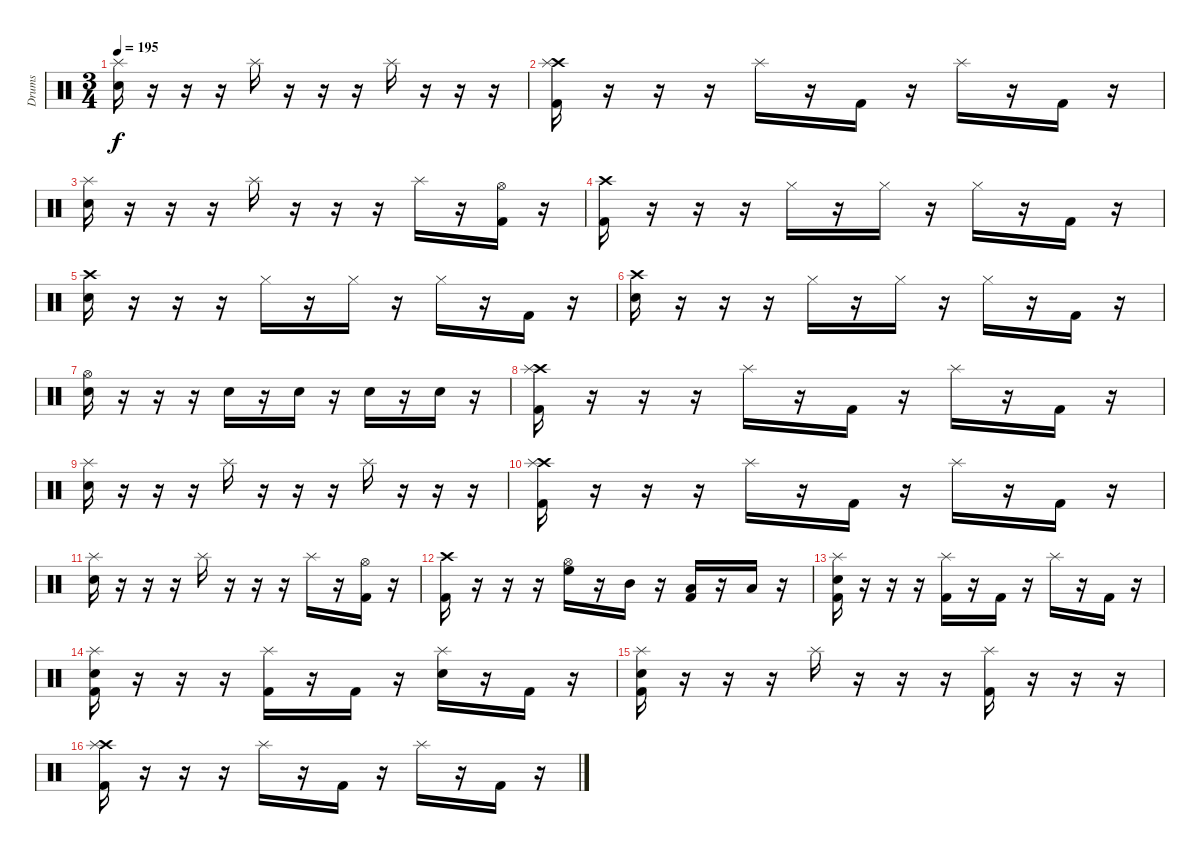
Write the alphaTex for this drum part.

\track ("Drums" "Drums") {instrument percussion}
\staff {score}
\articulation defaults
\ts (3 4)
\tempo 195
\clef neutral
\ks c
("Splash (hit)" "Snare (hit) 2").16{dy f} r.16 r.16 r.16 "Splash (hit)".16 r.16 r.16 r.16 "Splash (hit)".16 r.16 r.16 r.16 |
("Crash high (hit)" "Splash (hit)" "Kick (hit) 2").16 r.16 r.16 r.16 "Splash (hit)".16 r.16 "Kick (hit) 2".16 r.16 "Splash (hit)".16 r.16 "Kick (hit) 2".16 r.16 |
("Splash (hit)" "Snare (hit) 2").16 r.16 r.16 r.16 "Splash (hit)".16 r.16 r.16 r.16 "Splash (hit)".16 r.16 ("Hi-Hat (open)" "Kick (hit) 2").16 r.16 |
("Crash high (hit)" "Kick (hit) 2").16 r.16 r.16 r.16 "Hi-Hat (closed)".16 r.16 "Hi-Hat (closed)".16 r.16 "Hi-Hat (closed)".16 r.16 "Kick (hit) 2".16 r.16 |
("Crash high (hit)" "Snare (hit) 2").16 r.16 r.16 r.16 "Hi-Hat (closed)".16 r.16 "Hi-Hat (closed)".16 r.16 "Hi-Hat (closed)".16 r.16 "Kick (hit) 2".16 r.16 |
("Crash high (hit)" "Snare (hit) 2").16 r.16 r.16 r.16 "Hi-Hat (closed)".16 r.16 "Hi-Hat (closed)".16 r.16 "Hi-Hat (closed)".16 r.16 "Kick (hit) 2".16 r.16 |
("Hi-Hat (open)" "Snare (hit) 2").16 r.16 r.16 r.16 "Snare (hit) 2".16 r.16 "Snare (hit) 2".16 r.16 "Snare (hit) 2".16 r.16 "Snare (hit) 2".16 r.16 |
("Crash high (hit)" "Splash (hit)" "Kick (hit) 2").16 r.16 r.16 r.16 "Splash (hit)".16 r.16 "Kick (hit) 2".16 r.16 "Splash (hit)".16 r.16 "Kick (hit) 2".16 r.16 |
("Splash (hit)" "Snare (hit) 2").16 r.16 r.16 r.16 "Splash (hit)".16 r.16 r.16 r.16 "Splash (hit)".16 r.16 r.16 r.16 |
("Crash high (hit)" "Splash (hit)" "Kick (hit) 2").16 r.16 r.16 r.16 "Splash (hit)".16 r.16 "Kick (hit) 2".16 r.16 "Splash (hit)".16 r.16 "Kick (hit) 2".16 r.16 |
("Splash (hit)" "Snare (hit) 2").16 r.16 r.16 r.16 "Splash (hit)".16 r.16 r.16 r.16 "Splash (hit)".16 r.16 ("Hi-Hat (open)" "Kick (hit) 2").16 r.16 |
("Crash high (hit)" "Kick (hit) 2").16 r.16 r.16 r.16 ("Hi-Hat (open)" "High Floor Tom (hit)").16 r.16 "Mid Tom (hit)".16 r.16 ("Low Tom (hit)" "Kick (hit) 2").16 r.16 "Low Tom (hit)".16 r.16 |
("Splash (hit)" "Snare (hit) 2" "Kick (hit) 2").16 r.16 r.16 r.16 ("Splash (hit)" "Kick (hit) 2").16 r.16 "Kick (hit) 2".16 r.16 "Splash (hit)".16 r.16 "Kick (hit) 2".16 r.16 |
("Splash (hit)" "Snare (hit) 2" "Kick (hit) 2").16 r.16 r.16 r.16 ("Splash (hit)" "Kick (hit) 2").16 r.16 "Kick (hit) 2".16 r.16 ("Splash (hit)" "Snare (hit) 2").16 r.16 "Kick (hit) 2".16 r.16 |
("Splash (hit)" "Snare (hit) 2" "Kick (hit) 2").16 r.16 r.16 r.16 "Splash (hit)".16 r.16 r.16 r.16 ("Splash (hit)" "Kick (hit) 2").16 r.16 r.16 r.16 |
("Crash high (hit)" "Splash (hit)" "Kick (hit) 2").16 r.16 r.16 r.16 "Splash (hit)".16 r.16 "Kick (hit) 2".16 r.16 "Splash (hit)".16 r.16 "Kick (hit) 2".16 r.16
